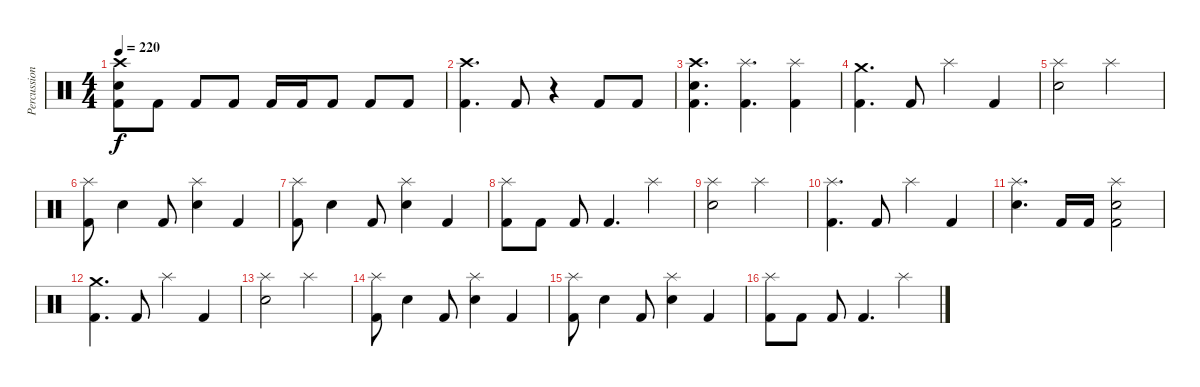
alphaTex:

\track ("Percussions" "Percussion") {instrument percussion}
\staff {score}
\articulation defaults
\ts (4 4)
\tempo 220
\clef neutral
\ks c
("Crash high (hit)" "Electric Snare (hit)" "Kick (hit) 2").8{dy f} "Kick (hit) 2".8 "Kick (hit) 2".8 "Kick (hit) 2".8 "Kick (hit) 2".16 "Kick (hit) 2".16 "Kick (hit) 2".8 "Kick (hit) 2".8 "Kick (hit) 2".8 |
("Crash high (hit)" "Kick (hit) 2").4{d} "Kick (hit) 2".8 r.4 "Kick (hit) 2".8 "Kick (hit) 2".8 |
("Crash high (hit)" "Electric Snare (hit)" "Kick (hit) 2").4{d} ("Splash (hit)" "Kick (hit) 2").4{d} ("Splash (hit)" "Kick (hit) 2").4 |
("Crash medium (hit)" "Kick (hit) 2").4{d} "Kick (hit) 2".8 "Splash (hit)".4 "Kick (hit) 2".4 |
("Splash (hit)" "Electric Snare (hit)").2 "Splash (hit)".2 |
("Splash (hit)" "Kick (hit) 2").8 "Electric Snare (hit)".4 "Kick (hit) 2".8 ("Splash (hit)" "Electric Snare (hit)").4 "Kick (hit) 2".4 |
("Splash (hit)" "Kick (hit) 2").8 "Electric Snare (hit)".4 "Kick (hit) 2".8 ("Splash (hit)" "Electric Snare (hit)").4 "Kick (hit) 2".4 |
("Splash (hit)" "Kick (hit) 2").8 "Kick (hit) 2".8 "Kick (hit) 2".8 "Kick (hit) 2".4{d} "Splash (hit)".4 |
("Splash (hit)" "Electric Snare (hit)").2 "Splash (hit)".2 |
("Splash (hit)" "Kick (hit) 2").4{d} "Kick (hit) 2".8 "Splash (hit)".4 "Kick (hit) 2".4 |
("Splash (hit)" "Electric Snare (hit)").4{d} "Kick (hit) 2".16 "Kick (hit) 2".16 ("Splash (hit)" "Electric Snare (hit)" "Kick (hit) 2").2 |
("Crash medium (hit)" "Kick (hit) 2").4{d} "Kick (hit) 2".8 "Splash (hit)".4 "Kick (hit) 2".4 |
("Splash (hit)" "Electric Snare (hit)").2 "Splash (hit)".2 |
("Splash (hit)" "Kick (hit) 2").8 "Electric Snare (hit)".4 "Kick (hit) 2".8 ("Splash (hit)" "Electric Snare (hit)").4 "Kick (hit) 2".4 |
("Splash (hit)" "Kick (hit) 2").8 "Electric Snare (hit)".4 "Kick (hit) 2".8 ("Splash (hit)" "Electric Snare (hit)").4 "Kick (hit) 2".4 |
("Splash (hit)" "Kick (hit) 2").8 "Kick (hit) 2".8 "Kick (hit) 2".8 "Kick (hit) 2".4{d} "Splash (hit)".4
